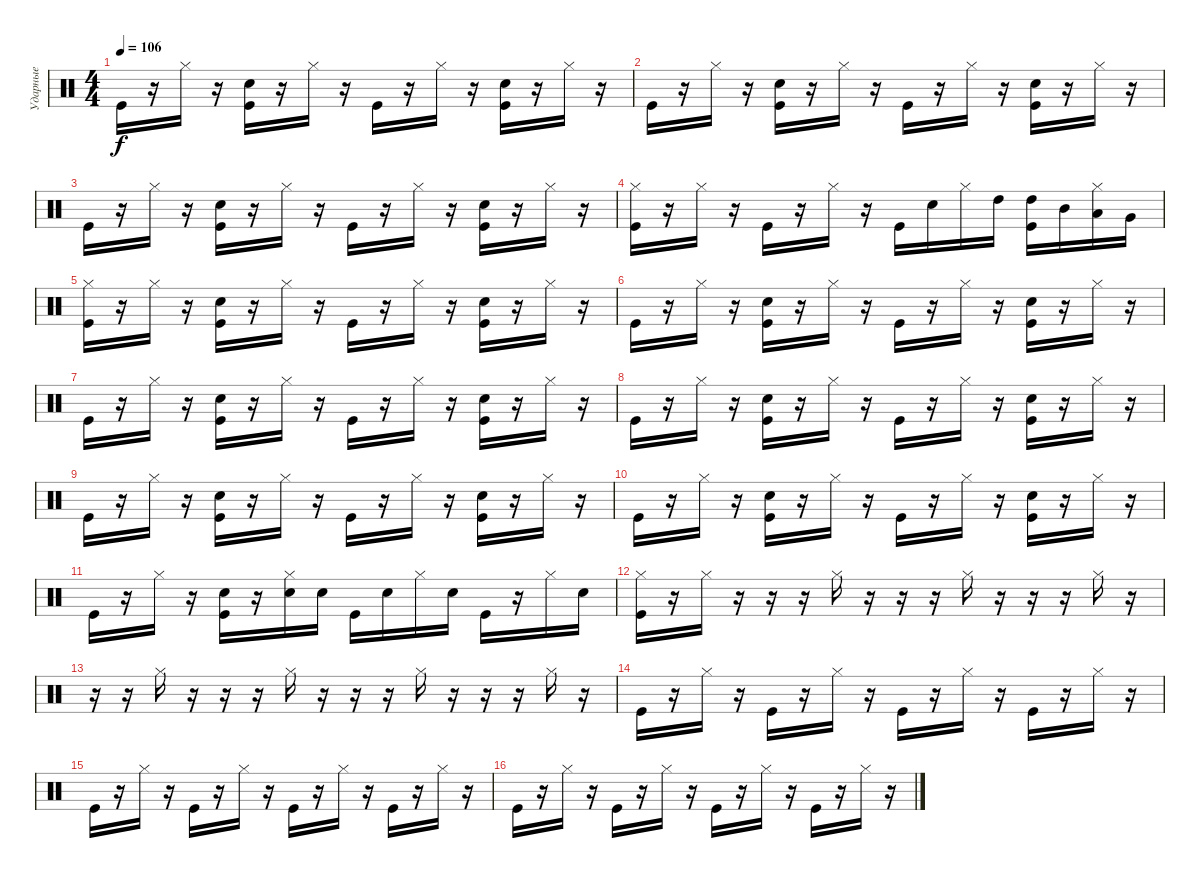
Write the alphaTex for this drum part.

\track ("Ударные" "Ударные") {instrument percussion}
\staff {score}
\articulation defaults
\ts (4 4)
\tempo 106
\clef neutral
\ks c "Kick (hit)".16{dy f}
r.16 "Hi-Hat (closed)".16 r.16 ("Snare (hit) 2" "Kick (hit)").16 r.16 "Hi-Hat (closed)".16 r.16 "Kick (hit)".16 r.16 "Hi-Hat (closed)".16 r.16 ("Snare (hit) 2" "Kick (hit)").16 r.16 "Hi-Hat (closed)".16 r.16 |
"Kick (hit)".16 r.16 "Hi-Hat (closed)".16 r.16 ("Snare (hit) 2" "Kick (hit)").16 r.16 "Hi-Hat (closed)".16 r.16 "Kick (hit)".16 r.16 "Hi-Hat (closed)".16 r.16 ("Snare (hit) 2" "Kick (hit)").16 r.16 "Hi-Hat (closed)".16 r.16 |
"Kick (hit)".16 r.16 "Hi-Hat (closed)".16 r.16 ("Snare (hit) 2" "Kick (hit)").16 r.16 "Hi-Hat (closed)".16 r.16 "Kick (hit)".16 r.16 "Hi-Hat (closed)".16 r.16 ("Snare (hit) 2" "Kick (hit)").16 r.16 "Hi-Hat (closed)".16 r.16 |
("Kick (hit)" "Hi-Hat (closed)").16 r.16 "Hi-Hat (closed)".16 r.16 "Kick (hit)".16 r.16 "Hi-Hat (closed)".16 r.16 "Kick (hit)".16 "Snare (hit) 2".16 "Hi-Hat (closed)".16 "High Tom (hit)".16 ("High Tom (hit)" "Kick (hit)").16 "Mid Tom (hit)".16 ("Low Tom (hit)" "Hi-Hat (closed)").16 "Very Low Tom (hit)".16 |
("Kick (hit)" "Hi-Hat (closed)").16 r.16 "Hi-Hat (closed)".16 r.16 ("Snare (hit) 2" "Kick (hit)").16 r.16 "Hi-Hat (closed)".16 r.16 "Kick (hit)".16 r.16 "Hi-Hat (closed)".16 r.16 ("Snare (hit) 2" "Kick (hit)").16 r.16 "Hi-Hat (closed)".16 r.16 |
"Kick (hit)".16 r.16 "Hi-Hat (closed)".16 r.16 ("Snare (hit) 2" "Kick (hit)").16 r.16 "Hi-Hat (closed)".16 r.16 "Kick (hit)".16 r.16 "Hi-Hat (closed)".16 r.16 ("Snare (hit) 2" "Kick (hit)").16 r.16 "Hi-Hat (closed)".16 r.16 |
"Kick (hit)".16 r.16 "Hi-Hat (closed)".16 r.16 ("Snare (hit) 2" "Kick (hit)").16 r.16 "Hi-Hat (closed)".16 r.16 "Kick (hit)".16 r.16 "Hi-Hat (closed)".16 r.16 ("Snare (hit) 2" "Kick (hit)").16 r.16 "Hi-Hat (closed)".16 r.16 |
"Kick (hit)".16 r.16 "Hi-Hat (closed)".16 r.16 ("Snare (hit) 2" "Kick (hit)").16 r.16 "Hi-Hat (closed)".16 r.16 "Kick (hit)".16 r.16 "Hi-Hat (closed)".16 r.16 ("Snare (hit) 2" "Kick (hit)").16 r.16 "Hi-Hat (closed)".16 r.16 |
"Kick (hit)".16 r.16 "Hi-Hat (closed)".16 r.16 ("Snare (hit) 2" "Kick (hit)").16 r.16 "Hi-Hat (closed)".16 r.16 "Kick (hit)".16 r.16 "Hi-Hat (closed)".16 r.16 ("Snare (hit) 2" "Kick (hit)").16 r.16 "Hi-Hat (closed)".16 r.16 |
"Kick (hit)".16 r.16 "Hi-Hat (closed)".16 r.16 ("Snare (hit) 2" "Kick (hit)").16 r.16 "Hi-Hat (closed)".16 r.16 "Kick (hit)".16 r.16 "Hi-Hat (closed)".16 r.16 ("Snare (hit) 2" "Kick (hit)").16 r.16 "Hi-Hat (closed)".16 r.16 |
"Kick (hit)".16 r.16 "Hi-Hat (closed)".16 r.16 ("Snare (hit) 2" "Kick (hit)").16 r.16 ("Hi-Hat (closed)" "Snare (hit) 2").16 "Snare (hit) 2".16 "Kick (hit)".16 "Snare (hit) 2".16 "Hi-Hat (closed)".16 "Snare (hit) 2".16 "Kick (hit)".16 r.16 "Hi-Hat (closed)".16 "Snare (hit) 2".16 |
("Kick (hit)" "Hi-Hat (closed)").16 r.16 "Hi-Hat (closed)".16 r.16 r.16 r.16 "Hi-Hat (closed)".16 r.16 r.16 r.16 "Hi-Hat (closed)".16 r.16 r.16 r.16 "Hi-Hat (closed)".16 r.16 |
r.16 r.16 "Hi-Hat (closed)".16 r.16 r.16 r.16 "Hi-Hat (closed)".16 r.16 r.16 r.16 "Hi-Hat (closed)".16 r.16 r.16 r.16 "Hi-Hat (closed)".16 r.16 |
"Kick (hit)".16 r.16 "Hi-Hat (closed)".16 r.16 "Kick (hit)".16 r.16 "Hi-Hat (closed)".16 r.16 "Kick (hit)".16 r.16 "Hi-Hat (closed)".16 r.16 "Kick (hit)".16 r.16 "Hi-Hat (closed)".16 r.16 |
"Kick (hit)".16 r.16 "Hi-Hat (closed)".16 r.16 "Kick (hit)".16 r.16 "Hi-Hat (closed)".16 r.16 "Kick (hit)".16 r.16 "Hi-Hat (closed)".16 r.16 "Kick (hit)".16 r.16 "Hi-Hat (closed)".16 r.16 |
"Kick (hit)".16 r.16 "Hi-Hat (closed)".16 r.16 "Kick (hit)".16 r.16 "Hi-Hat (closed)".16 r.16 "Kick (hit)".16 r.16 "Hi-Hat (closed)".16 r.16 "Kick (hit)".16 r.16 "Hi-Hat (closed)".16 r.16
